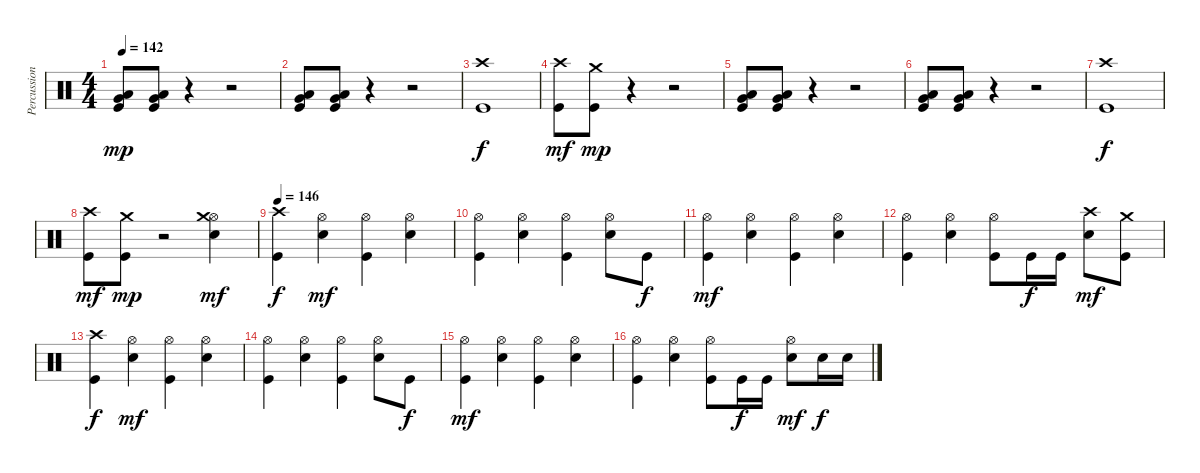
\track ("Percussions" "Percussion") {instrument percussion}
\staff {score}
\articulation defaults
\ts (4 4)
\tempo 142
\clef neutral
\ks c
("Kick (hit)" "Very Low Tom (hit)" "Low Floor Tom (hit)").8{dy mp} ("Kick (hit)" "Very Low Tom (hit)" "Low Floor Tom (hit)").8 r.4 r.2 |
("Kick (hit)" "Very Low Tom (hit)" "Low Floor Tom (hit)").8 ("Kick (hit)" "Very Low Tom (hit)" "Low Floor Tom (hit)").8 r.4 r.2 |
("Kick (hit)" "Crash high (hit)").1{dy f} |
("Kick (hit)" "Crash high (hit)").8{dy mf} ("Kick (hit)" "Crash medium (hit)").8{dy mp} r.4 r.2 |
("Kick (hit)" "Very Low Tom (hit)" "Low Floor Tom (hit)").8 ("Kick (hit)" "Very Low Tom (hit)" "Low Floor Tom (hit)").8 r.4 r.2 |
("Kick (hit)" "Very Low Tom (hit)" "Low Floor Tom (hit)").8 ("Kick (hit)" "Very Low Tom (hit)" "Low Floor Tom (hit)").8 r.4 r.2 |
("Kick (hit)" "Crash high (hit)").1{dy f} |
("Kick (hit)" "Crash high (hit)").8{dy mf} ("Kick (hit)" "Crash medium (hit)").8{dy mp} r.2 ("Electric Snare (hit)" "Hi-Hat (open)" "Crash medium (hit)").4{dy mf} |
\tempo 146
("Kick (hit)" "Crash high (hit)").4{dy f} ("Electric Snare (hit)" "Hi-Hat (open)").4{dy mf} ("Kick (hit)" "Hi-Hat (open)").4 ("Electric Snare (hit)" "Hi-Hat (open)").4 |
("Kick (hit)" "Hi-Hat (open)").4 ("Electric Snare (hit)" "Hi-Hat (open)").4 ("Kick (hit)" "Hi-Hat (open)").4 ("Electric Snare (hit)" "Hi-Hat (open)").8 "Kick (hit)".8{dy f} |
("Kick (hit)" "Hi-Hat (open)").4{dy mf} ("Electric Snare (hit)" "Hi-Hat (open)").4 ("Kick (hit)" "Hi-Hat (open)").4 ("Electric Snare (hit)" "Hi-Hat (open)").4 |
("Kick (hit)" "Hi-Hat (open)").4 ("Electric Snare (hit)" "Hi-Hat (open)").4 ("Kick (hit)" "Hi-Hat (open)").8 "Kick (hit)".16{dy f} "Kick (hit)".16 ("Electric Snare (hit)" "Crash high (hit)").8{dy mf} ("Kick (hit)" "Crash medium (hit)").8 |
("Kick (hit)" "Crash high (hit)").4{dy f} ("Electric Snare (hit)" "Hi-Hat (open)").4{dy mf} ("Kick (hit)" "Hi-Hat (open)").4 ("Electric Snare (hit)" "Hi-Hat (open)").4 |
("Kick (hit)" "Hi-Hat (open)").4 ("Electric Snare (hit)" "Hi-Hat (open)").4 ("Kick (hit)" "Hi-Hat (open)").4 ("Electric Snare (hit)" "Hi-Hat (open)").8 "Kick (hit)".8{dy f} |
("Kick (hit)" "Hi-Hat (open)").4{dy mf} ("Electric Snare (hit)" "Hi-Hat (open)").4 ("Kick (hit)" "Hi-Hat (open)").4 ("Electric Snare (hit)" "Hi-Hat (open)").4 |
("Kick (hit)" "Hi-Hat (open)").4 ("Electric Snare (hit)" "Hi-Hat (open)").4 ("Kick (hit)" "Hi-Hat (open)").8 "Kick (hit)".16{dy f} "Kick (hit)".16 ("Electric Snare (hit)" "Hi-Hat (open)").8{dy mf} "Electric Snare (hit)".16{dy f} "Electric Snare (hit)".16
